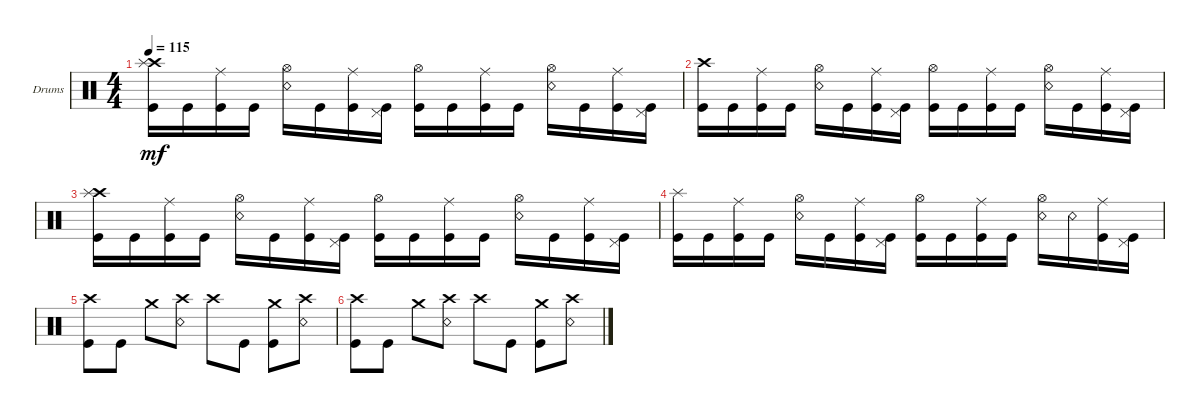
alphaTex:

\defaultSystemsLayout 4
\bracketExtendMode groupsimilarinstruments
\firstSystemTrackNameOrientation horizontal
\otherSystemsTrackNameOrientation horizontal
\track ("Drum" "Drums") {multiBarRest instrument percussion}
\staff {score}
\articulation defaults
\ts (4 4)
\tempo 115
\clef neutral
\ks c
("Kick (hit)" "Crash high (hit)" "Splash (hit)").16{dy mf} "Kick (hit)".16 ("Kick (hit)" "Ride (middle)").16 "Kick (hit)".16 ("Snare (rim shot)" "Hi-Hat (open)").16 "Kick (hit)".16 ("Kick (hit)" "Ride (middle)").16 ("Kick (hit)" "Pedal Hi-Hat (hit)").16 ("Kick (hit)" "Hi-Hat (open)").16 "Kick (hit)".16 ("Kick (hit)" "Ride (middle)").16 "Kick (hit)".16 ("Snare (rim shot)" "Hi-Hat (open)").16 "Kick (hit)".16 ("Kick (hit)" "Ride (middle)").16 ("Kick (hit)" "Pedal Hi-Hat (hit)").16 |
("Kick (hit)" "Crash high (hit)").16 "Kick (hit)".16 ("Kick (hit)" "Ride (middle)").16 "Kick (hit)".16 ("Snare (rim shot)" "Hi-Hat (open)").16 "Kick (hit)".16 ("Kick (hit)" "Ride (middle)").16 ("Kick (hit)" "Pedal Hi-Hat (hit)").16 ("Kick (hit)" "Hi-Hat (open)").16 "Kick (hit)".16 ("Kick (hit)" "Ride (middle)").16 "Kick (hit)".16 ("Snare (rim shot)" "Hi-Hat (open)").16 "Kick (hit)".16 ("Kick (hit)" "Ride (middle)").16 ("Kick (hit)" "Pedal Hi-Hat (hit)").16 |
("Kick (hit)" "Crash high (hit)" "Splash (hit)").16 "Kick (hit)".16 ("Kick (hit)" "Ride (middle)").16 "Kick (hit)".16 ("Snare (rim shot)" "Hi-Hat (open)").16 "Kick (hit)".16 ("Kick (hit)" "Ride (middle)").16 ("Kick (hit)" "Pedal Hi-Hat (hit)").16 ("Kick (hit)" "Hi-Hat (open)").16 "Kick (hit)".16 ("Kick (hit)" "Ride (middle)").16 "Kick (hit)".16 ("Snare (rim shot)" "Hi-Hat (open)").16 "Kick (hit)".16 ("Kick (hit)" "Ride (middle)").16 ("Kick (hit)" "Pedal Hi-Hat (hit)").16 |
("Kick (hit)" "Splash (hit)").16 "Kick (hit)".16 ("Kick (hit)" "Ride (middle)").16 "Kick (hit)".16 ("Snare (rim shot)" "Hi-Hat (open)").16 "Kick (hit)".16 ("Kick (hit)" "Ride (middle)").16 ("Kick (hit)" "Pedal Hi-Hat (hit)").16 ("Kick (hit)" "Hi-Hat (open)").16 "Kick (hit)".16 ("Kick (hit)" "Ride (middle)").16 "Kick (hit)".16 ("Snare (rim shot)" "Hi-Hat (open)").16 "Snare (rim shot)".16 ("Kick (hit)" "Ride (middle)").16 ("Kick (hit)" "Pedal Hi-Hat (hit)").16 |
("Kick (hit)" "Crash high (hit)").8 "Kick (hit)".8 "Crash medium (hit)".8 ("Snare (rim shot)" "Crash high (hit)").8 "Crash high (hit)".8 "Kick (hit)".8 ("Crash medium (hit)" "Kick (hit)").8 ("Snare (rim shot)" "Crash high (hit)").8 |
("Kick (hit)" "Crash high (hit)").8 "Kick (hit)".8 "Crash medium (hit)".8 ("Snare (rim shot)" "Crash high (hit)").8 "Crash high (hit)".8 "Kick (hit)".8 ("Crash medium (hit)" "Kick (hit)").8 ("Snare (rim shot)" "Crash high (hit)").8
